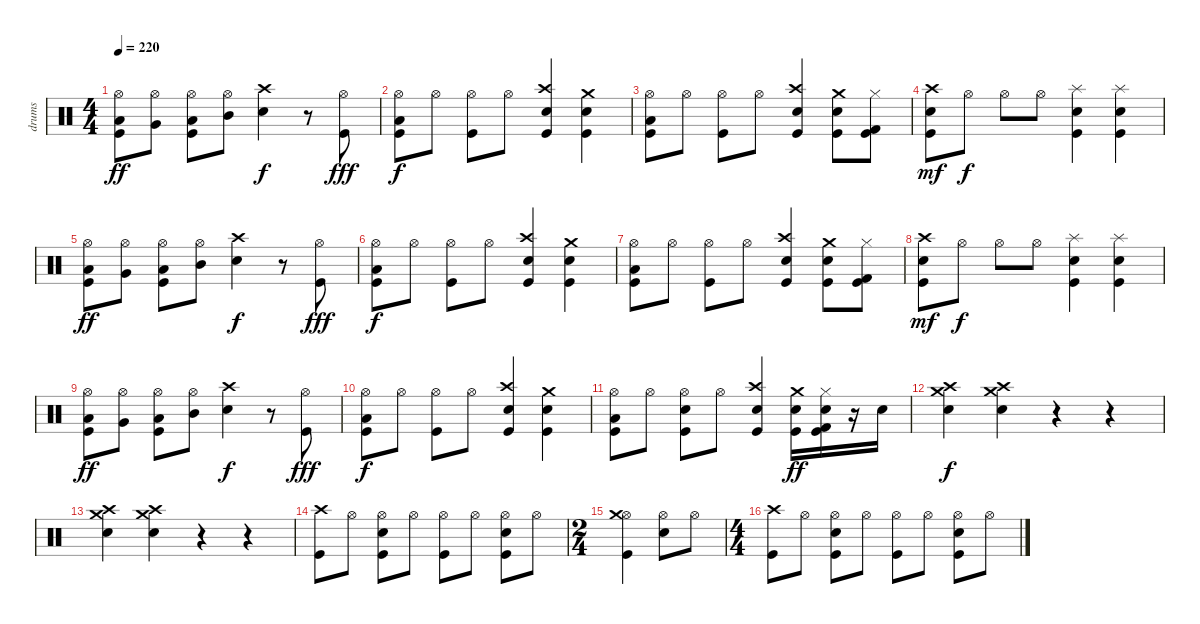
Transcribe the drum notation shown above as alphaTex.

\track ("drums" "drums") {instrument percussion}
\staff {score}
\articulation defaults
\ts (4 4)
\tempo 220
\clef neutral
\ks c
("Hi-Hat (open)" "Low Floor Tom (hit)" "Kick (hit)").8{dy ff} ("Hi-Hat (open)" "Very Low Tom (hit)").8 ("Hi-Hat (open)" "Low Tom (hit)" "Kick (hit)").8 ("Hi-Hat (open)" "Mid Tom (hit)").8 ("Crash high (hit)" "Electric Snare (hit)").4{dy f} r.8 ("Hi-Hat (open)" "Kick (hit)").8{dy fff} |
("Low Tom (hit)" "Kick (hit)" "Hi-Hat (open)").8{dy f} "Hi-Hat (open)".8 ("Kick (hit)" "Hi-Hat (open)").8 "Hi-Hat (open)".8 ("Crash high (hit)" "Electric Snare (hit)" "Kick (hit)").4 ("Crash medium (hit)" "Electric Snare (hit)" "Kick (hit)").4 |
("Low Tom (hit)" "Kick (hit)" "Hi-Hat (open)").8 "Hi-Hat (open)".8 ("Kick (hit)" "Hi-Hat (open)").8 "Hi-Hat (open)".8 ("Crash high (hit)" "Electric Snare (hit)" "Kick (hit)").4 ("Crash medium (hit)" "Electric Snare (hit)" "Kick (hit)").8 ("Hi-Hat (closed)" "Kick (hit) 2" "Kick (hit)").8 |
("Electric Snare (hit)" "Crash high (hit)" "Kick (hit)").8{dy mf} "Hi-Hat (open)".8{dy f} "Hi-Hat (open)".8 "Hi-Hat (open)".8 ("Electric Snare (hit)" "Splash (hit)" "Kick (hit)").4 ("Electric Snare (hit)" "Splash (hit)" "Kick (hit)").4 |
("Hi-Hat (open)" "Low Floor Tom (hit)" "Kick (hit)").8{dy ff} ("Hi-Hat (open)" "Very Low Tom (hit)").8 ("Hi-Hat (open)" "Low Tom (hit)" "Kick (hit)").8 ("Hi-Hat (open)" "Mid Tom (hit)").8 ("Crash high (hit)" "Electric Snare (hit)").4{dy f} r.8 ("Hi-Hat (open)" "Kick (hit)").8{dy fff} |
("Low Tom (hit)" "Kick (hit)" "Hi-Hat (open)").8{dy f} "Hi-Hat (open)".8 ("Kick (hit)" "Hi-Hat (open)").8 "Hi-Hat (open)".8 ("Crash high (hit)" "Electric Snare (hit)" "Kick (hit)").4 ("Crash medium (hit)" "Electric Snare (hit)" "Kick (hit)").4 |
("Low Tom (hit)" "Kick (hit)" "Hi-Hat (open)").8 "Hi-Hat (open)".8 ("Kick (hit)" "Hi-Hat (open)").8 "Hi-Hat (open)".8 ("Crash high (hit)" "Electric Snare (hit)" "Kick (hit)").4 ("Crash medium (hit)" "Electric Snare (hit)" "Kick (hit)").8 ("Hi-Hat (closed)" "Kick (hit) 2" "Kick (hit)").8 |
("Electric Snare (hit)" "Crash high (hit)" "Kick (hit)").8{dy mf} "Hi-Hat (open)".8{dy f} "Hi-Hat (open)".8 "Hi-Hat (open)".8 ("Electric Snare (hit)" "Splash (hit)" "Kick (hit)").4 ("Electric Snare (hit)" "Splash (hit)" "Kick (hit)").4 |
("Hi-Hat (open)" "Low Floor Tom (hit)" "Kick (hit)").8{dy ff} ("Hi-Hat (open)" "Very Low Tom (hit)").8 ("Hi-Hat (open)" "Low Tom (hit)" "Kick (hit)").8 ("Hi-Hat (open)" "Mid Tom (hit)").8 ("Crash high (hit)" "Electric Snare (hit)").4{dy f} r.8 ("Hi-Hat (open)" "Kick (hit)").8{dy fff} |
("Low Tom (hit)" "Kick (hit)" "Hi-Hat (open)").8{dy f} "Hi-Hat (open)".8 ("Kick (hit)" "Hi-Hat (open)").8 "Hi-Hat (open)".8 ("Crash high (hit)" "Electric Snare (hit)" "Kick (hit)").4 ("Crash medium (hit)" "Electric Snare (hit)" "Kick (hit)").4 |
("Low Tom (hit)" "Kick (hit)" "Hi-Hat (open)").8 "Hi-Hat (open)".8 ("Electric Snare (hit)" "Kick (hit)" "Hi-Hat (open)").8 "Hi-Hat (open)".8 ("Crash high (hit)" "Electric Snare (hit)" "Kick (hit)").4 ("Crash medium (hit)" "Electric Snare (hit)" "Kick (hit)").16{dy ff} ("Electric Snare (hit)" "Hi-Hat (closed)" "Kick (hit) 2" "Kick (hit)").16 r.16 "Electric Snare (hit)".16 |
("Crash medium (hit)" "Crash high (hit)" "Electric Snare (hit)").4{dy f} ("Crash medium (hit)" "Crash high (hit)" "Electric Snare (hit)").4 r.4 r.4 |
("Crash medium (hit)" "Crash high (hit)" "Electric Snare (hit)").4 ("Crash medium (hit)" "Crash high (hit)" "Electric Snare (hit)").4 r.4 r.4 |
("Crash high (hit)" "Kick (hit)").8 "Hi-Hat (open)".8 ("Hi-Hat (open)" "Electric Snare (hit)" "Kick (hit)").8 "Hi-Hat (open)".8 ("Hi-Hat (open)" "Kick (hit)").8 "Hi-Hat (open)".8 ("Hi-Hat (open)" "Electric Snare (hit)" "Kick (hit)").8 "Hi-Hat (open)".8 |
\ts (2 4)
("Hi-Hat (open)" "Crash medium (hit)" "Kick (hit)").4 ("Hi-Hat (open)" "Electric Snare (hit)").8 "Hi-Hat (open)".8 |
\ts (4 4)
("Crash high (hit)" "Kick (hit)").8 "Hi-Hat (open)".8 ("Hi-Hat (open)" "Electric Snare (hit)" "Kick (hit)").8 "Hi-Hat (open)".8 ("Hi-Hat (open)" "Kick (hit)").8 "Hi-Hat (open)".8 ("Hi-Hat (open)" "Electric Snare (hit)" "Kick (hit)").8 "Hi-Hat (open)".8
